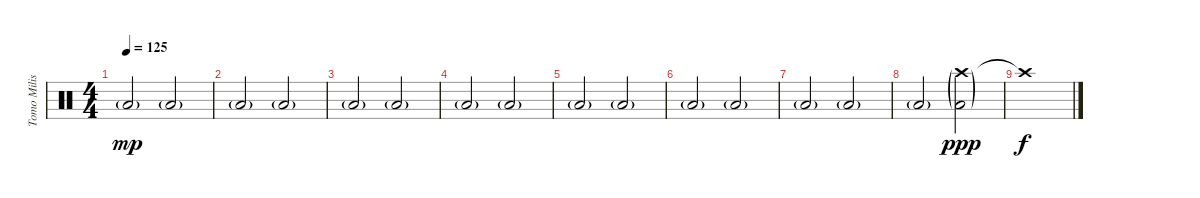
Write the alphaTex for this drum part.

\track ("Tomo Milisevic" "Tomo Milis") {instrument percussion}
\staff {score}
\articulation defaults
\ts (4 4)
\tempo 125
\clef neutral
\ks c "Low Floor Tom (hit)"{g}.2{dy mp} "Low Floor Tom (hit)"{g}.2
|
"Low Floor Tom (hit)"{g}.2 "Low Floor Tom (hit)"{g}.2 |
"Low Floor Tom (hit)"{g}.2 "Low Floor Tom (hit)"{g}.2 |
"Low Floor Tom (hit)"{g}.2 "Low Floor Tom (hit)"{g}.2 |
"Low Floor Tom (hit)"{g}.2 "Low Floor Tom (hit)"{g}.2 |
"Low Floor Tom (hit)"{g}.2 "Low Floor Tom (hit)"{g}.2 |
"Low Floor Tom (hit)"{g}.2 "Low Floor Tom (hit)"{g}.2 |
"Low Floor Tom (hit)"{g}.2 ("Crash high (hit)"{g} "Low Floor Tom (hit)"{g}).2{dy ppp} |
"Crash high (hit)"{t}.1{dy f}
